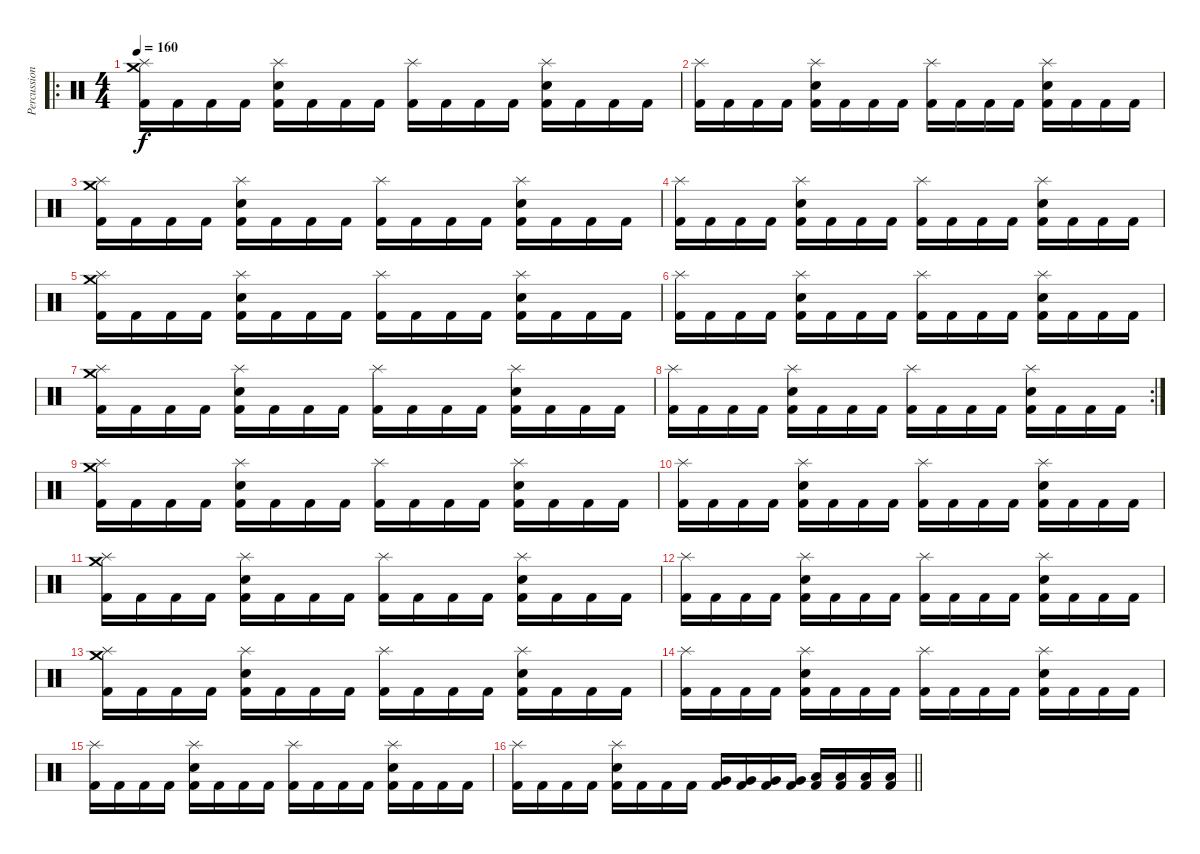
\track ("Percussions" "Percussion") {instrument percussion}
\staff {score}
\articulation defaults
\ro
\ts (4 4)
\tempo 160
\clef neutral
\ks c
("Crash medium (hit)" "Splash (hit)" "Kick (hit) 2").16{dy f} "Kick (hit) 2".16 "Kick (hit) 2".16 "Kick (hit) 2".16 ("Splash (hit)" "Snare (hit) 2" "Kick (hit) 2").16 "Kick (hit) 2".16 "Kick (hit) 2".16 "Kick (hit) 2".16 ("Splash (hit)" "Kick (hit) 2").16 "Kick (hit) 2".16 "Kick (hit) 2".16 "Kick (hit) 2".16 ("Splash (hit)" "Snare (hit) 2" "Kick (hit) 2").16 "Kick (hit) 2".16 "Kick (hit) 2".16 "Kick (hit) 2".16 |
("Splash (hit)" "Kick (hit) 2").16 "Kick (hit) 2".16 "Kick (hit) 2".16 "Kick (hit) 2".16 ("Splash (hit)" "Snare (hit) 2" "Kick (hit) 2").16 "Kick (hit) 2".16 "Kick (hit) 2".16 "Kick (hit) 2".16 ("Splash (hit)" "Kick (hit) 2").16 "Kick (hit) 2".16 "Kick (hit) 2".16 "Kick (hit) 2".16 ("Splash (hit)" "Snare (hit) 2" "Kick (hit) 2").16 "Kick (hit) 2".16 "Kick (hit) 2".16 "Kick (hit) 2".16 |
("Crash medium (hit)" "Splash (hit)" "Kick (hit) 2").16 "Kick (hit) 2".16 "Kick (hit) 2".16 "Kick (hit) 2".16 ("Splash (hit)" "Snare (hit) 2" "Kick (hit) 2").16 "Kick (hit) 2".16 "Kick (hit) 2".16 "Kick (hit) 2".16 ("Splash (hit)" "Kick (hit) 2").16 "Kick (hit) 2".16 "Kick (hit) 2".16 "Kick (hit) 2".16 ("Splash (hit)" "Snare (hit) 2" "Kick (hit) 2").16 "Kick (hit) 2".16 "Kick (hit) 2".16 "Kick (hit) 2".16 |
("Splash (hit)" "Kick (hit) 2").16 "Kick (hit) 2".16 "Kick (hit) 2".16 "Kick (hit) 2".16 ("Splash (hit)" "Snare (hit) 2" "Kick (hit) 2").16 "Kick (hit) 2".16 "Kick (hit) 2".16 "Kick (hit) 2".16 ("Splash (hit)" "Kick (hit) 2").16 "Kick (hit) 2".16 "Kick (hit) 2".16 "Kick (hit) 2".16 ("Splash (hit)" "Snare (hit) 2" "Kick (hit) 2").16 "Kick (hit) 2".16 "Kick (hit) 2".16 "Kick (hit) 2".16 |
("Crash medium (hit)" "Splash (hit)" "Kick (hit) 2").16 "Kick (hit) 2".16 "Kick (hit) 2".16 "Kick (hit) 2".16 ("Splash (hit)" "Snare (hit) 2" "Kick (hit) 2").16 "Kick (hit) 2".16 "Kick (hit) 2".16 "Kick (hit) 2".16 ("Splash (hit)" "Kick (hit) 2").16 "Kick (hit) 2".16 "Kick (hit) 2".16 "Kick (hit) 2".16 ("Splash (hit)" "Snare (hit) 2" "Kick (hit) 2").16 "Kick (hit) 2".16 "Kick (hit) 2".16 "Kick (hit) 2".16 |
("Splash (hit)" "Kick (hit) 2").16 "Kick (hit) 2".16 "Kick (hit) 2".16 "Kick (hit) 2".16 ("Splash (hit)" "Snare (hit) 2" "Kick (hit) 2").16 "Kick (hit) 2".16 "Kick (hit) 2".16 "Kick (hit) 2".16 ("Splash (hit)" "Kick (hit) 2").16 "Kick (hit) 2".16 "Kick (hit) 2".16 "Kick (hit) 2".16 ("Splash (hit)" "Snare (hit) 2" "Kick (hit) 2").16 "Kick (hit) 2".16 "Kick (hit) 2".16 "Kick (hit) 2".16 |
("Crash medium (hit)" "Splash (hit)" "Kick (hit) 2").16 "Kick (hit) 2".16 "Kick (hit) 2".16 "Kick (hit) 2".16 ("Splash (hit)" "Snare (hit) 2" "Kick (hit) 2").16 "Kick (hit) 2".16 "Kick (hit) 2".16 "Kick (hit) 2".16 ("Splash (hit)" "Kick (hit) 2").16 "Kick (hit) 2".16 "Kick (hit) 2".16 "Kick (hit) 2".16 ("Splash (hit)" "Snare (hit) 2" "Kick (hit) 2").16 "Kick (hit) 2".16 "Kick (hit) 2".16 "Kick (hit) 2".16 |
\rc 2
("Splash (hit)" "Kick (hit) 2").16 "Kick (hit) 2".16 "Kick (hit) 2".16 "Kick (hit) 2".16 ("Splash (hit)" "Snare (hit) 2" "Kick (hit) 2").16 "Kick (hit) 2".16 "Kick (hit) 2".16 "Kick (hit) 2".16 ("Splash (hit)" "Kick (hit) 2").16 "Kick (hit) 2".16 "Kick (hit) 2".16 "Kick (hit) 2".16 ("Splash (hit)" "Snare (hit) 2" "Kick (hit) 2").16 "Kick (hit) 2".16 "Kick (hit) 2".16 "Kick (hit) 2".16 |
("Crash medium (hit)" "Splash (hit)" "Kick (hit) 2").16 "Kick (hit) 2".16 "Kick (hit) 2".16 "Kick (hit) 2".16 ("Splash (hit)" "Snare (hit) 2" "Kick (hit) 2").16 "Kick (hit) 2".16 "Kick (hit) 2".16 "Kick (hit) 2".16 ("Splash (hit)" "Kick (hit) 2").16 "Kick (hit) 2".16 "Kick (hit) 2".16 "Kick (hit) 2".16 ("Splash (hit)" "Snare (hit) 2" "Kick (hit) 2").16 "Kick (hit) 2".16 "Kick (hit) 2".16 "Kick (hit) 2".16 |
("Splash (hit)" "Kick (hit) 2").16 "Kick (hit) 2".16 "Kick (hit) 2".16 "Kick (hit) 2".16 ("Splash (hit)" "Snare (hit) 2" "Kick (hit) 2").16 "Kick (hit) 2".16 "Kick (hit) 2".16 "Kick (hit) 2".16 ("Splash (hit)" "Kick (hit) 2").16 "Kick (hit) 2".16 "Kick (hit) 2".16 "Kick (hit) 2".16 ("Splash (hit)" "Snare (hit) 2" "Kick (hit) 2").16 "Kick (hit) 2".16 "Kick (hit) 2".16 "Kick (hit) 2".16 |
("Crash medium (hit)" "Splash (hit)" "Kick (hit) 2").16 "Kick (hit) 2".16 "Kick (hit) 2".16 "Kick (hit) 2".16 ("Splash (hit)" "Snare (hit) 2" "Kick (hit) 2").16 "Kick (hit) 2".16 "Kick (hit) 2".16 "Kick (hit) 2".16 ("Splash (hit)" "Kick (hit) 2").16 "Kick (hit) 2".16 "Kick (hit) 2".16 "Kick (hit) 2".16 ("Splash (hit)" "Snare (hit) 2" "Kick (hit) 2").16 "Kick (hit) 2".16 "Kick (hit) 2".16 "Kick (hit) 2".16 |
("Splash (hit)" "Kick (hit) 2").16 "Kick (hit) 2".16 "Kick (hit) 2".16 "Kick (hit) 2".16 ("Splash (hit)" "Snare (hit) 2" "Kick (hit) 2").16 "Kick (hit) 2".16 "Kick (hit) 2".16 "Kick (hit) 2".16 ("Splash (hit)" "Kick (hit) 2").16 "Kick (hit) 2".16 "Kick (hit) 2".16 "Kick (hit) 2".16 ("Splash (hit)" "Snare (hit) 2" "Kick (hit) 2").16 "Kick (hit) 2".16 "Kick (hit) 2".16 "Kick (hit) 2".16 |
("Crash medium (hit)" "Splash (hit)" "Kick (hit) 2").16 "Kick (hit) 2".16 "Kick (hit) 2".16 "Kick (hit) 2".16 ("Splash (hit)" "Snare (hit) 2" "Kick (hit) 2").16 "Kick (hit) 2".16 "Kick (hit) 2".16 "Kick (hit) 2".16 ("Splash (hit)" "Kick (hit) 2").16 "Kick (hit) 2".16 "Kick (hit) 2".16 "Kick (hit) 2".16 ("Splash (hit)" "Snare (hit) 2" "Kick (hit) 2").16 "Kick (hit) 2".16 "Kick (hit) 2".16 "Kick (hit) 2".16 |
("Splash (hit)" "Kick (hit) 2").16 "Kick (hit) 2".16 "Kick (hit) 2".16 "Kick (hit) 2".16 ("Splash (hit)" "Snare (hit) 2" "Kick (hit) 2").16 "Kick (hit) 2".16 "Kick (hit) 2".16 "Kick (hit) 2".16 ("Splash (hit)" "Kick (hit) 2").16 "Kick (hit) 2".16 "Kick (hit) 2".16 "Kick (hit) 2".16 ("Splash (hit)" "Snare (hit) 2" "Kick (hit) 2").16 "Kick (hit) 2".16 "Kick (hit) 2".16 "Kick (hit) 2".16 |
("Splash (hit)" "Kick (hit) 2").16 "Kick (hit) 2".16 "Kick (hit) 2".16 "Kick (hit) 2".16 ("Splash (hit)" "Snare (hit) 2" "Kick (hit) 2").16 "Kick (hit) 2".16 "Kick (hit) 2".16 "Kick (hit) 2".16 ("Splash (hit)" "Kick (hit) 2").16 "Kick (hit) 2".16 "Kick (hit) 2".16 "Kick (hit) 2".16 ("Splash (hit)" "Snare (hit) 2" "Kick (hit) 2").16 "Kick (hit) 2".16 "Kick (hit) 2".16 "Kick (hit) 2".16 |
\barLineRight lightlight
("Splash (hit)" "Kick (hit) 2").16 "Kick (hit) 2".16 "Kick (hit) 2".16 "Kick (hit) 2".16 ("Splash (hit)" "Snare (hit) 2" "Kick (hit) 2").16 "Kick (hit) 2".16 "Kick (hit) 2".16 "Kick (hit) 2".16 ("Very Low Tom (hit)" "Kick (hit) 2").16 ("Very Low Tom (hit)" "Kick (hit) 2").16 ("Very Low Tom (hit)" "Kick (hit) 2").16 ("Very Low Tom (hit)" "Kick (hit) 2").16 ("Low Floor Tom (hit)" "Kick (hit) 2").16 ("Low Floor Tom (hit)" "Kick (hit) 2").16 ("Low Floor Tom (hit)" "Kick (hit) 2").16 ("Low Floor Tom (hit)" "Kick (hit) 2").16
